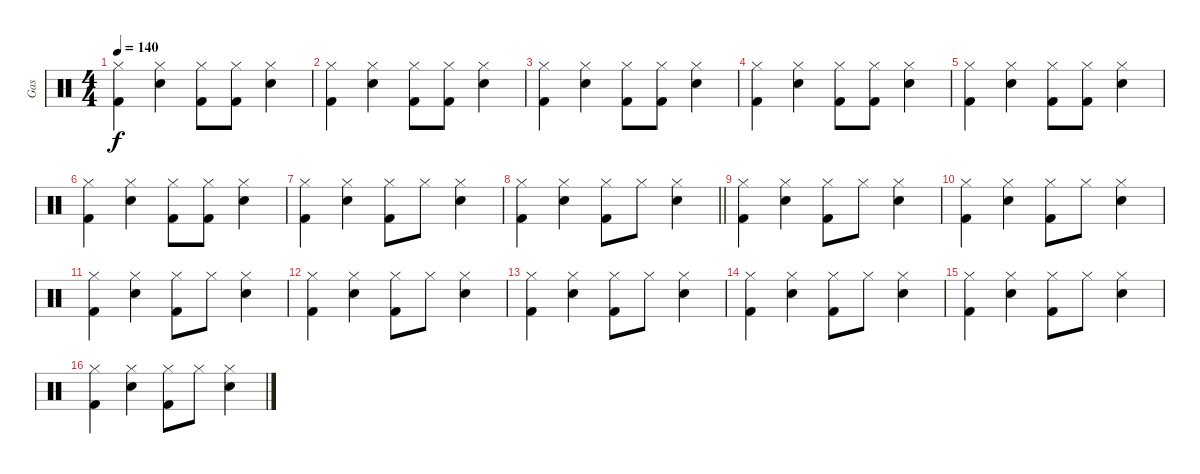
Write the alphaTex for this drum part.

\track ("Gas" "Gas") {instrument percussion}
\staff {score}
\articulation defaults
\ts (4 4)
\tempo 140
\clef neutral
\ks c
("Hi-Hat (closed)" "Kick (hit) 2").4{dy f} ("Hi-Hat (closed)" "Electric Snare (hit)").4 ("Hi-Hat (closed)" "Kick (hit) 2").8 ("Hi-Hat (closed)" "Kick (hit) 2").8 ("Hi-Hat (closed)" "Electric Snare (hit)").4 |
("Hi-Hat (closed)" "Kick (hit) 2").4 ("Hi-Hat (closed)" "Electric Snare (hit)").4 ("Hi-Hat (closed)" "Kick (hit) 2").8 ("Hi-Hat (closed)" "Kick (hit) 2").8 ("Hi-Hat (closed)" "Electric Snare (hit)").4 |
("Hi-Hat (closed)" "Kick (hit) 2").4 ("Hi-Hat (closed)" "Electric Snare (hit)").4 ("Hi-Hat (closed)" "Kick (hit) 2").8 ("Hi-Hat (closed)" "Kick (hit) 2").8 ("Hi-Hat (closed)" "Electric Snare (hit)").4 |
("Hi-Hat (closed)" "Kick (hit) 2").4 ("Hi-Hat (closed)" "Electric Snare (hit)").4 ("Hi-Hat (closed)" "Kick (hit) 2").8 ("Hi-Hat (closed)" "Kick (hit) 2").8 ("Hi-Hat (closed)" "Electric Snare (hit)").4 |
("Hi-Hat (closed)" "Kick (hit) 2").4 ("Hi-Hat (closed)" "Electric Snare (hit)").4 ("Hi-Hat (closed)" "Kick (hit) 2").8 ("Hi-Hat (closed)" "Kick (hit) 2").8 ("Hi-Hat (closed)" "Electric Snare (hit)").4 |
("Hi-Hat (closed)" "Kick (hit) 2").4 ("Hi-Hat (closed)" "Electric Snare (hit)").4 ("Hi-Hat (closed)" "Kick (hit) 2").8 ("Hi-Hat (closed)" "Kick (hit) 2").8 ("Hi-Hat (closed)" "Electric Snare (hit)").4 |
("Hi-Hat (closed)" "Kick (hit) 2").4 ("Hi-Hat (closed)" "Electric Snare (hit)").4 ("Hi-Hat (closed)" "Kick (hit) 2").8 "Hi-Hat (closed)".8 ("Hi-Hat (closed)" "Electric Snare (hit)").4 |
\barLineRight lightlight
("Hi-Hat (closed)" "Kick (hit) 2").4 ("Hi-Hat (closed)" "Electric Snare (hit)").4 ("Hi-Hat (closed)" "Kick (hit) 2").8 "Hi-Hat (closed)".8 ("Hi-Hat (closed)" "Electric Snare (hit)").4 |
("Hi-Hat (closed)" "Kick (hit) 2").4 ("Hi-Hat (closed)" "Electric Snare (hit)").4 ("Hi-Hat (closed)" "Kick (hit) 2").8 "Hi-Hat (closed)".8 ("Hi-Hat (closed)" "Electric Snare (hit)").4 |
("Hi-Hat (closed)" "Kick (hit) 2").4 ("Hi-Hat (closed)" "Electric Snare (hit)").4 ("Hi-Hat (closed)" "Kick (hit) 2").8 "Hi-Hat (closed)".8 ("Hi-Hat (closed)" "Electric Snare (hit)").4 |
("Hi-Hat (closed)" "Kick (hit) 2").4 ("Hi-Hat (closed)" "Electric Snare (hit)").4 ("Hi-Hat (closed)" "Kick (hit) 2").8 "Hi-Hat (closed)".8 ("Hi-Hat (closed)" "Electric Snare (hit)").4 |
("Hi-Hat (closed)" "Kick (hit) 2").4 ("Hi-Hat (closed)" "Electric Snare (hit)").4 ("Hi-Hat (closed)" "Kick (hit) 2").8 "Hi-Hat (closed)".8 ("Hi-Hat (closed)" "Electric Snare (hit)").4 |
("Hi-Hat (closed)" "Kick (hit) 2").4 ("Hi-Hat (closed)" "Electric Snare (hit)").4 ("Hi-Hat (closed)" "Kick (hit) 2").8 "Hi-Hat (closed)".8 ("Hi-Hat (closed)" "Electric Snare (hit)").4 |
("Hi-Hat (closed)" "Kick (hit) 2").4 ("Hi-Hat (closed)" "Electric Snare (hit)").4 ("Hi-Hat (closed)" "Kick (hit) 2").8 "Hi-Hat (closed)".8 ("Hi-Hat (closed)" "Electric Snare (hit)").4 |
("Hi-Hat (closed)" "Kick (hit) 2").4 ("Hi-Hat (closed)" "Electric Snare (hit)").4 ("Hi-Hat (closed)" "Kick (hit) 2").8 "Hi-Hat (closed)".8 ("Hi-Hat (closed)" "Electric Snare (hit)").4 |
("Hi-Hat (closed)" "Kick (hit) 2").4 ("Hi-Hat (closed)" "Electric Snare (hit)").4 ("Hi-Hat (closed)" "Kick (hit) 2").8 "Hi-Hat (closed)".8 ("Hi-Hat (closed)" "Electric Snare (hit)").4
